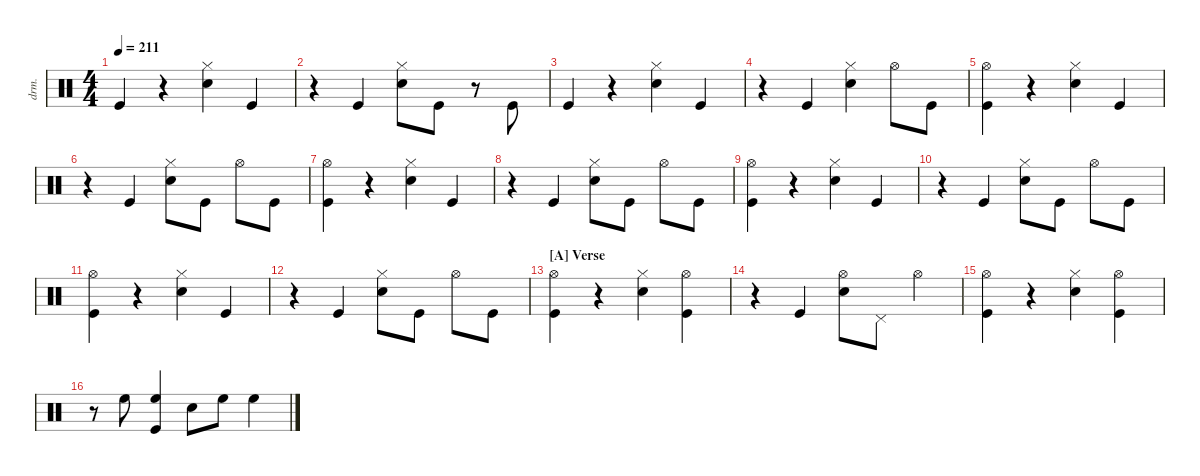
\defaultSystemsLayout 4
\hideDynamics
\bracketExtendMode nobrackets
\track ("Drums" "drm.") {instrument percussion}
\staff {score}
\articulation defaults
\ts (4 4)
\tempo 211
\clef neutral
\ks c "Kick (hit)".4{dy fff beam Up}
r.4{beam Down} ("Snare (hit) 2" "Hi-Hat (closed)"{acc #}).4{dy ff beam Down} "Kick (hit)".4{beam Up} |
r.4{beam Down} "Kick (hit)".4{beam Up} ("Snare (hit) 2" "Hi-Hat (closed)"{acc #}).8{beam Down} "Kick (hit)".8{beam Down} r.8{beam Down} "Kick (hit)".8{dy mp beam Up} |
"Kick (hit)".4{dy fff beam Up} r.4{beam Down} ("Snare (hit) 2" "Hi-Hat (closed)"{acc #}).4{dy ff beam Down} "Kick (hit)".4{beam Up} |
r.4{beam Down} "Kick (hit)".4{beam Up} ("Snare (hit) 2" "Hi-Hat (closed)"{acc #}).4{beam Down} "Hi-Hat (open)"{acc #}.8{dy f beam Down} "Kick (hit)".8{dy mp beam Down} |
("Kick (hit)" "Hi-Hat (open)"{acc #}).4{dy fff beam Down} r.4{beam Down} ("Snare (hit) 2" "Hi-Hat (closed)"{acc #}).4{dy ff beam Down} "Kick (hit)".4{beam Up} |
r.4{beam Down} "Kick (hit)".4{beam Up} ("Snare (hit) 2" "Hi-Hat (closed)"{acc #}).8{beam Down} "Kick (hit)".8{beam Down} "Hi-Hat (open)"{acc #}.8{dy f beam Down} "Kick (hit)".8{dy mp beam Down} |
("Kick (hit)" "Hi-Hat (open)"{acc #}).4{dy fff beam Down} r.4{beam Down} ("Snare (hit) 2" "Hi-Hat (closed)"{acc #}).4{dy ff beam Down} "Kick (hit)".4{beam Up} |
r.4{beam Down} "Kick (hit)".4{beam Up} ("Snare (hit) 2" "Hi-Hat (closed)"{acc #}).8{beam Down} "Kick (hit)".8{beam Down} "Hi-Hat (open)"{acc #}.8{dy f beam Down} "Kick (hit)".8{dy mp beam Down} |
("Kick (hit)" "Hi-Hat (open)"{acc #}).4{dy fff beam Down} r.4{beam Down} ("Snare (hit) 2" "Hi-Hat (closed)"{acc #}).4{dy ff beam Down} "Kick (hit)".4{beam Up} |
r.4{beam Down} "Kick (hit)".4{beam Up} ("Snare (hit) 2" "Hi-Hat (closed)"{acc #}).8{beam Down} "Kick (hit)".8{beam Down} "Hi-Hat (open)"{acc #}.8{dy f beam Down} "Kick (hit)".8{dy mp beam Down} |
("Kick (hit)" "Hi-Hat (open)"{acc #}).4{dy fff beam Down} r.4{beam Down} ("Snare (hit) 2" "Hi-Hat (closed)"{acc #}).4{dy ff beam Down} "Kick (hit)".4{beam Up} |
r.4{beam Down} "Kick (hit)".4{beam Up} ("Snare (hit) 2" "Hi-Hat (closed)"{acc #}).8{beam Down} "Kick (hit)".8{beam Down} "Hi-Hat (open)"{acc #}.8{dy f beam Down} "Kick (hit)".8{dy mp beam Down} |
\section ("A" "Verse")
("Kick (hit)" "Hi-Hat (open)"{acc #}).4{dy fff beam Down} r.4{beam Down} ("Snare (hit) 2" "Hi-Hat (closed)"{acc #}).4{dy ff beam Down} ("Kick (hit)" "Hi-Hat (open)"{acc #}).4{dy f beam Down} |
r.4{beam Down} "Kick (hit)".4{dy fff beam Up} ("Snare (hit) 2" "Hi-Hat (open)"{acc #}).8{dy ff beam Down} "Pedal Hi-Hat (hit)"{acc #}.8{beam Down} "Hi-Hat (open)"{acc #}.4{dy fff beam Down} |
("Kick (hit)" "Hi-Hat (open)"{acc #}).4{beam Down} r.4{beam Down} ("Snare (hit) 2" "Hi-Hat (closed)"{acc #}).4{dy ff beam Down} ("Kick (hit)" "Hi-Hat (open)"{acc #}).4{dy f beam Down} |
r.8{beam Down} "High Floor Tom (hit)".8{dy mp beam Down} ("Kick (hit)" "High Floor Tom (hit)").4{dy fff beam Up} "Snare (hit) 2".8{dy ff beam Down} "High Floor Tom (hit)".8{dy p beam Down} "High Floor Tom (hit)".4{dy fff beam Down}
